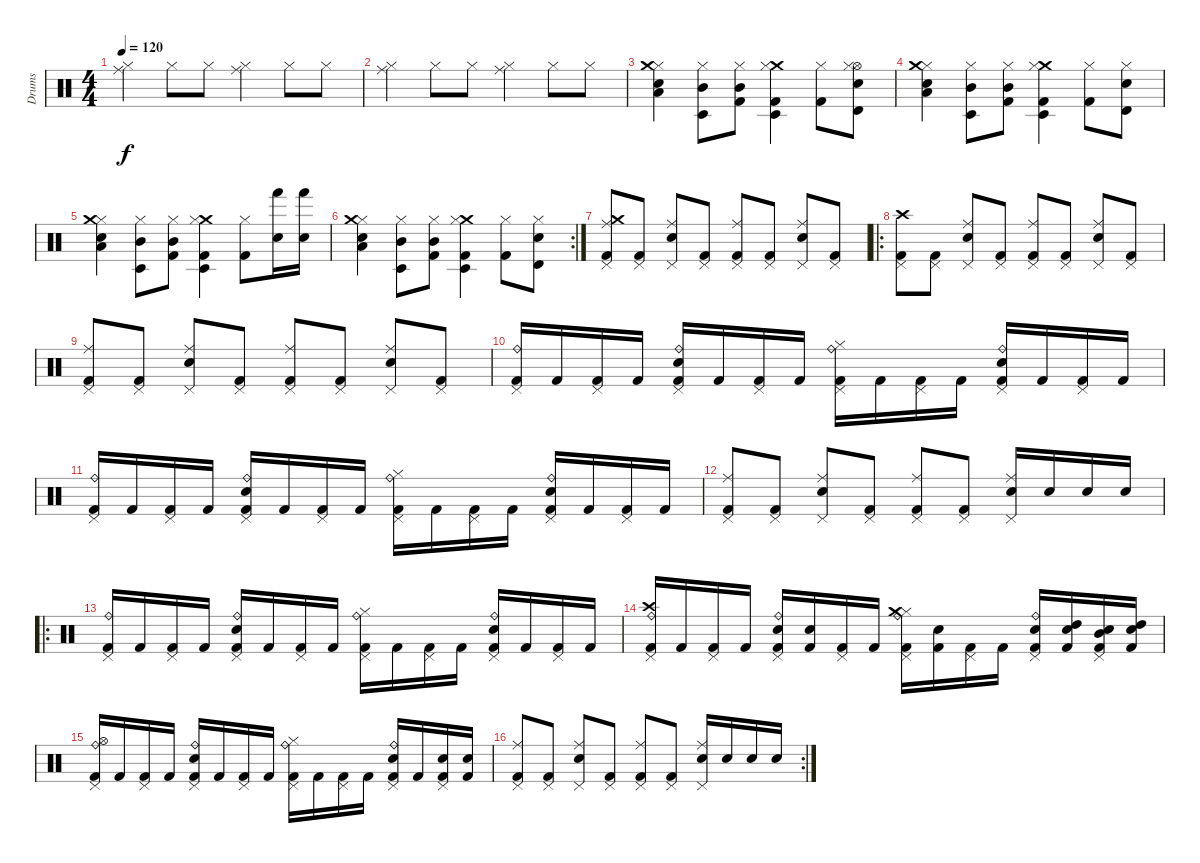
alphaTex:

\track ("Drums" "Drums") {instrument percussion}
\staff {score}
\articulation defaults
\ts (4 4)
\tempo 120
\clef neutral
\ks c
("Hi-Hat (closed)" "Ride (middle)").4{dy f} "Hi-Hat (closed)".8 "Hi-Hat (closed)".8 ("Hi-Hat (closed)" "Ride (middle)").4 "Hi-Hat (closed)".8 "Hi-Hat (closed)".8 |
("Hi-Hat (closed)" "Ride (middle)").4 "Hi-Hat (closed)".8 "Hi-Hat (closed)".8 ("Hi-Hat (closed)" "Ride (middle)").4 "Hi-Hat (closed)".8 "Hi-Hat (closed)".8 |
("Hi-Hat (closed)" "Low Tom (hit)" "Crash medium (hit)" "Electric Snare (hit)").4 ("Timbale low (hit)" "Hi-Hat (closed)" "Mid Tom (hit)").8 ("Kick (hit) 2" "Hi-Hat (closed)" "Mid Tom (hit)").8 ("Crash medium (hit)" "Hi-Hat (closed)" "Kick (hit) 2" "Timbale low (hit)").4 ("Hi-Hat (closed)" "Kick (hit) 2").8 ("Hi-Hat (open)" "Hi-Hat (closed)" "Electric Snare (hit)" "Timbale high (hit)").8 |
("Hi-Hat (closed)" "Low Tom (hit)" "Crash medium (hit)" "Electric Snare (hit)").4 ("Timbale low (hit)" "Hi-Hat (closed)" "Mid Tom (hit)").8 ("Kick (hit) 2" "Hi-Hat (closed)" "Mid Tom (hit)").8 ("Crash medium (hit)" "Hi-Hat (closed)" "Kick (hit) 2" "Timbale low (hit)").4 ("Hi-Hat (closed)" "Kick (hit) 2").8 ("Timbale high (hit)" "Hi-Hat (closed)" "Electric Snare (hit)").8 |
("Hi-Hat (closed)" "Low Tom (hit)" "Crash medium (hit)" "Snare (hit) 2").4 ("Timbale low (hit)" "Hi-Hat (closed)" "Mid Tom (hit)").8 ("Kick (hit) 2" "Hi-Hat (closed)" "Mid Tom (hit)").8 ("Crash medium (hit)" "Hi-Hat (closed)" "Kick (hit) 2" "Timbale low (hit)").4 ("Hi-Hat (closed)" "Kick (hit) 2").8 ("Hand (hit)" "Electric Snare (hit)").16 ("Hand (hit)" "Electric Snare (hit)").16 |
\rc 2
("Hi-Hat (closed)" "Low Tom (hit)" "Crash medium (hit)" "Snare (hit) 2").4 ("Timbale low (hit)" "Hi-Hat (closed)" "Mid Tom (hit)").8 ("Kick (hit) 2" "Hi-Hat (closed)" "Mid Tom (hit)").8 ("Crash medium (hit)" "Hi-Hat (closed)" "Kick (hit) 2" "Timbale low (hit)").4 ("Hi-Hat (closed)" "Kick (hit) 2").8 ("Timbale high (hit)" "Hi-Hat (closed)" "Electric Snare (hit)").8 |
("Pedal Hi-Hat (hit)" "Ride (middle)" "Kick (hit) 2" "Crash medium (hit)").8 ("Pedal Hi-Hat (hit)" "Kick (hit) 2").8 ("Pedal Hi-Hat (hit)" "Ride (middle)" "Electric Snare (hit)").8 ("Pedal Hi-Hat (hit)" "Kick (hit) 2").8 ("Pedal Hi-Hat (hit)" "Ride (middle)" "Kick (hit) 2").8 ("Pedal Hi-Hat (hit)" "Kick (hit) 2").8 ("Pedal Hi-Hat (hit)" "Ride (middle)" "Electric Snare (hit)").8 ("Pedal Hi-Hat (hit)" "Kick (hit) 2").8 |
\ro
("Pedal Hi-Hat (hit)" "Crash high (hit)" "Kick (hit) 2").8 ("Pedal Hi-Hat (hit)" "Kick (hit) 2").8 ("Pedal Hi-Hat (hit)" "Ride (middle)" "Electric Snare (hit)").8 ("Pedal Hi-Hat (hit)" "Kick (hit) 2").8 ("Pedal Hi-Hat (hit)" "Ride (middle)" "Kick (hit) 2").8 ("Pedal Hi-Hat (hit)" "Kick (hit) 2").8 ("Pedal Hi-Hat (hit)" "Ride (middle)" "Electric Snare (hit)").8 ("Pedal Hi-Hat (hit)" "Kick (hit) 2").8 |
("Pedal Hi-Hat (hit)" "Ride (middle)" "Kick (hit) 2").8 ("Pedal Hi-Hat (hit)" "Kick (hit) 2").8 ("Pedal Hi-Hat (hit)" "Ride (middle)" "Electric Snare (hit)").8 ("Pedal Hi-Hat (hit)" "Kick (hit) 2").8 ("Pedal Hi-Hat (hit)" "Ride (middle)" "Kick (hit) 2").8 ("Pedal Hi-Hat (hit)" "Kick (hit) 2").8 ("Pedal Hi-Hat (hit)" "Ride (middle)" "Electric Snare (hit)").8 ("Pedal Hi-Hat (hit)" "Kick (hit) 2").8 |
("Pedal Hi-Hat (hit)" "Ride (bell)" "Kick (hit) 2").16 "Kick (hit) 2".16 ("Pedal Hi-Hat (hit)" "Kick (hit) 2").16 "Kick (hit) 2".16 ("Electric Snare (hit)" "Ride (bell)" "Kick (hit) 2" "Pedal Hi-Hat (hit)").16 "Kick (hit) 2".16 ("Kick (hit) 2" "Pedal Hi-Hat (hit)").16 "Kick (hit) 2".16 ("Hi-Hat (closed)" "Ride (bell)" "Kick (hit) 2" "Pedal Hi-Hat (hit)").16 "Kick (hit) 2".16 ("Kick (hit) 2" "Pedal Hi-Hat (hit)").16 "Kick (hit) 2".16 ("Electric Snare (hit)" "Ride (bell)" "Kick (hit) 2" "Pedal Hi-Hat (hit)").16 "Kick (hit) 2".16 ("Kick (hit) 2" "Pedal Hi-Hat (hit)").16 "Kick (hit) 2".16 |
("Pedal Hi-Hat (hit)" "Ride (bell)" "Kick (hit) 2").16 "Kick (hit) 2".16 ("Pedal Hi-Hat (hit)" "Kick (hit) 2").16 "Kick (hit) 2".16 ("Electric Snare (hit)" "Ride (bell)" "Kick (hit) 2" "Pedal Hi-Hat (hit)").16 "Kick (hit) 2".16 ("Kick (hit) 2" "Pedal Hi-Hat (hit)").16 "Kick (hit) 2".16 ("Hi-Hat (closed)" "Ride (bell)" "Kick (hit) 2" "Pedal Hi-Hat (hit)").16 "Kick (hit) 2".16 ("Kick (hit) 2" "Pedal Hi-Hat (hit)").16 "Kick (hit) 2".16 ("Electric Snare (hit)" "Ride (bell)" "Kick (hit) 2" "Pedal Hi-Hat (hit)").16 "Kick (hit) 2".16 ("Kick (hit) 2" "Pedal Hi-Hat (hit)").16 "Kick (hit) 2".16 |
("Pedal Hi-Hat (hit)" "Ride (middle)" "Kick (hit) 2").8 ("Pedal Hi-Hat (hit)" "Kick (hit) 2").8 ("Pedal Hi-Hat (hit)" "Ride (middle)" "Electric Snare (hit)").8 ("Pedal Hi-Hat (hit)" "Kick (hit) 2").8 ("Pedal Hi-Hat (hit)" "Ride (middle)" "Kick (hit) 2").8 ("Pedal Hi-Hat (hit)" "Kick (hit) 2").8 ("Pedal Hi-Hat (hit)" "Ride (middle)" "Electric Snare (hit)").16 "Electric Snare (hit)".16 "Electric Snare (hit)".16 "Electric Snare (hit)".16 |
\ro
("Pedal Hi-Hat (hit)" "Ride (bell)" "Kick (hit) 2").16 "Kick (hit) 2".16 ("Pedal Hi-Hat (hit)" "Kick (hit) 2").16 "Kick (hit) 2".16 ("Electric Snare (hit)" "Ride (bell)" "Kick (hit) 2" "Pedal Hi-Hat (hit)").16 "Kick (hit) 2".16 ("Kick (hit) 2" "Pedal Hi-Hat (hit)").16 "Kick (hit) 2".16 ("Hi-Hat (closed)" "Ride (bell)" "Kick (hit) 2" "Pedal Hi-Hat (hit)").16 "Kick (hit) 2".16 ("Kick (hit) 2" "Pedal Hi-Hat (hit)").16 "Kick (hit) 2".16 ("Electric Snare (hit)" "Ride (bell)" "Kick (hit) 2" "Pedal Hi-Hat (hit)").16 "Kick (hit) 2".16 ("Kick (hit) 2" "Pedal Hi-Hat (hit)").16 "Kick (hit) 2".16 |
("Pedal Hi-Hat (hit)" "Ride (bell)" "Kick (hit) 2" "Crash high (hit)").16 "Kick (hit) 2".16 ("Pedal Hi-Hat (hit)" "Kick (hit) 2").16 "Kick (hit) 2".16 ("Electric Snare (hit)" "Ride (bell)" "Kick (hit) 2" "Pedal Hi-Hat (hit)").16 ("Electric Snare (hit)" "Kick (hit) 2").16 ("Kick (hit) 2" "Pedal Hi-Hat (hit)").16 "Kick (hit) 2".16 ("Hi-Hat (closed)" "Ride (bell)" "Kick (hit) 2" "Pedal Hi-Hat (hit)" "Crash medium (hit)").16 ("Electric Snare (hit)" "Kick (hit) 2").16 ("Kick (hit) 2" "Pedal Hi-Hat (hit)").16 "Kick (hit) 2".16 ("Electric Snare (hit)" "Ride (bell)" "Kick (hit) 2" "Pedal Hi-Hat (hit)").16 ("Electric Snare (hit)" "High Tom (hit)" "Kick (hit) 2").16 ("Electric Snare (hit)" "Mid Tom (hit)" "Kick (hit) 2" "Pedal Hi-Hat (hit)").16 ("Electric Snare (hit)" "High Tom (hit)" "Kick (hit) 2").16 |
("Pedal Hi-Hat (hit)" "Ride (bell)" "Kick (hit) 2" "Hi-Hat (open)").16 "Kick (hit) 2".16 ("Pedal Hi-Hat (hit)" "Kick (hit) 2").16 "Kick (hit) 2".16 ("Electric Snare (hit)" "Ride (bell)" "Kick (hit) 2" "Pedal Hi-Hat (hit)").16 "Kick (hit) 2".16 ("Kick (hit) 2" "Pedal Hi-Hat (hit)").16 "Kick (hit) 2".16 ("Hi-Hat (closed)" "Ride (bell)" "Kick (hit) 2" "Pedal Hi-Hat (hit)").16 "Kick (hit) 2".16 ("Kick (hit) 2" "Pedal Hi-Hat (hit)").16 "Kick (hit) 2".16 ("Electric Snare (hit)" "Ride (bell)" "Kick (hit) 2" "Pedal Hi-Hat (hit)").16 "Kick (hit) 2".16 ("Electric Snare (hit)" "Kick (hit) 2" "Pedal Hi-Hat (hit)").16 ("Electric Snare (hit)" "Kick (hit) 2").16 |
\rc 2
("Pedal Hi-Hat (hit)" "Ride (middle)" "Kick (hit) 2").8 ("Pedal Hi-Hat (hit)" "Kick (hit) 2").8 ("Pedal Hi-Hat (hit)" "Ride (middle)" "Electric Snare (hit)").8 ("Pedal Hi-Hat (hit)" "Kick (hit) 2").8 ("Pedal Hi-Hat (hit)" "Ride (middle)" "Kick (hit) 2").8 ("Pedal Hi-Hat (hit)" "Kick (hit) 2").8 ("Pedal Hi-Hat (hit)" "Ride (middle)" "Electric Snare (hit)").16 "Electric Snare (hit)".16 "Electric Snare (hit)".16 "Electric Snare (hit)".16
